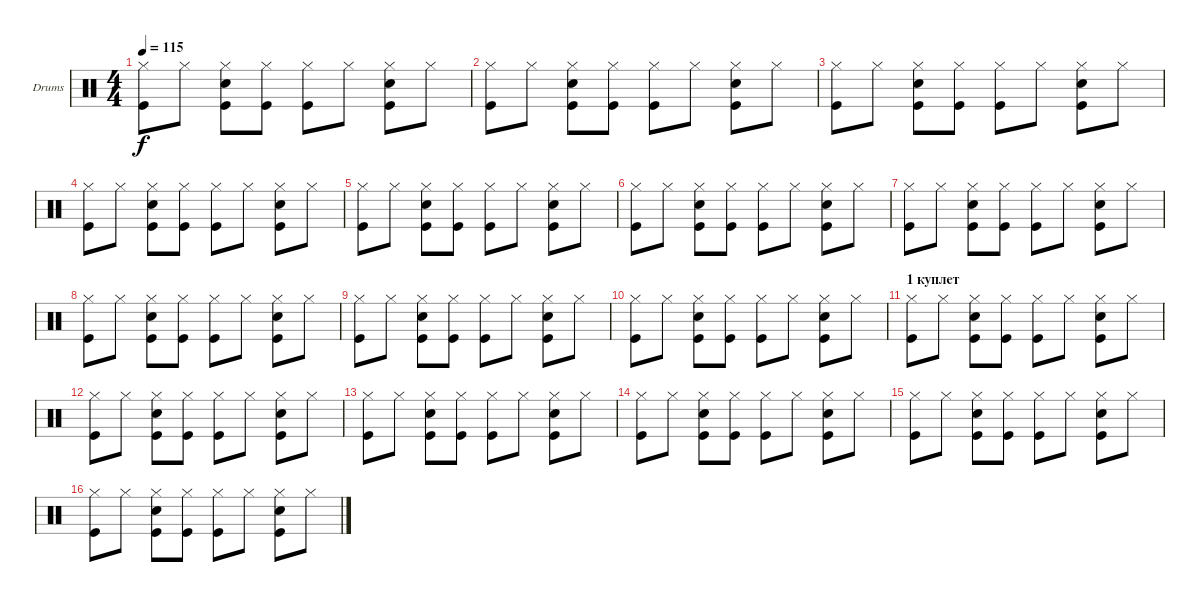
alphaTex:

\defaultSystemsLayout 4
\bracketExtendMode groupsimilarinstruments
\firstSystemTrackNameOrientation horizontal
\otherSystemsTrackNameOrientation horizontal
\track ("Drumkit" "Drums") {instrument percussion}
\staff {score}
\articulation defaults
\ts (4 4)
\tempo 115
\clef neutral
\ks c
("Hi-Hat (closed)" "Kick (hit)").8{dy f} "Hi-Hat (closed)".8 ("Hi-Hat (closed)" "Snare (hit) 2" "Kick (hit)").8 ("Hi-Hat (closed)" "Kick (hit)").8 ("Hi-Hat (closed)" "Kick (hit)").8 "Hi-Hat (closed)".8 ("Hi-Hat (closed)" "Kick (hit)" "Snare (hit) 2").8 "Hi-Hat (closed)".8 |
("Hi-Hat (closed)" "Kick (hit)").8 "Hi-Hat (closed)".8 ("Hi-Hat (closed)" "Snare (hit) 2" "Kick (hit)").8 ("Hi-Hat (closed)" "Kick (hit)").8 ("Hi-Hat (closed)" "Kick (hit)").8 "Hi-Hat (closed)".8 ("Hi-Hat (closed)" "Kick (hit)" "Snare (hit) 2").8 "Hi-Hat (closed)".8 |
("Hi-Hat (closed)" "Kick (hit)").8 "Hi-Hat (closed)".8 ("Hi-Hat (closed)" "Snare (hit) 2" "Kick (hit)").8 ("Hi-Hat (closed)" "Kick (hit)").8 ("Hi-Hat (closed)" "Kick (hit)").8 "Hi-Hat (closed)".8 ("Hi-Hat (closed)" "Kick (hit)" "Snare (hit) 2").8 "Hi-Hat (closed)".8 |
("Hi-Hat (closed)" "Kick (hit)").8 "Hi-Hat (closed)".8 ("Hi-Hat (closed)" "Snare (hit) 2" "Kick (hit)").8 ("Hi-Hat (closed)" "Kick (hit)").8 ("Hi-Hat (closed)" "Kick (hit)").8 "Hi-Hat (closed)".8 ("Hi-Hat (closed)" "Kick (hit)" "Snare (hit) 2").8 "Hi-Hat (closed)".8 |
("Hi-Hat (closed)" "Kick (hit)").8 "Hi-Hat (closed)".8 ("Hi-Hat (closed)" "Snare (hit) 2" "Kick (hit)").8 ("Hi-Hat (closed)" "Kick (hit)").8 ("Hi-Hat (closed)" "Kick (hit)").8 "Hi-Hat (closed)".8 ("Hi-Hat (closed)" "Kick (hit)" "Snare (hit) 2").8 "Hi-Hat (closed)".8 |
("Hi-Hat (closed)" "Kick (hit)").8 "Hi-Hat (closed)".8 ("Hi-Hat (closed)" "Snare (hit) 2" "Kick (hit)").8 ("Hi-Hat (closed)" "Kick (hit)").8 ("Hi-Hat (closed)" "Kick (hit)").8 "Hi-Hat (closed)".8 ("Hi-Hat (closed)" "Kick (hit)" "Snare (hit) 2").8 "Hi-Hat (closed)".8 |
("Hi-Hat (closed)" "Kick (hit)").8 "Hi-Hat (closed)".8 ("Hi-Hat (closed)" "Snare (hit) 2" "Kick (hit)").8 ("Hi-Hat (closed)" "Kick (hit)").8 ("Hi-Hat (closed)" "Kick (hit)").8 "Hi-Hat (closed)".8 ("Hi-Hat (closed)" "Kick (hit)" "Snare (hit) 2").8 "Hi-Hat (closed)".8 |
("Hi-Hat (closed)" "Kick (hit)").8 "Hi-Hat (closed)".8 ("Hi-Hat (closed)" "Snare (hit) 2" "Kick (hit)").8 ("Hi-Hat (closed)" "Kick (hit)").8 ("Hi-Hat (closed)" "Kick (hit)").8 "Hi-Hat (closed)".8 ("Hi-Hat (closed)" "Kick (hit)" "Snare (hit) 2").8 "Hi-Hat (closed)".8 |
("Hi-Hat (closed)" "Kick (hit)").8 "Hi-Hat (closed)".8 ("Hi-Hat (closed)" "Snare (hit) 2" "Kick (hit)").8 ("Hi-Hat (closed)" "Kick (hit)").8 ("Hi-Hat (closed)" "Kick (hit)").8 "Hi-Hat (closed)".8 ("Hi-Hat (closed)" "Kick (hit)" "Snare (hit) 2").8 "Hi-Hat (closed)".8 |
("Hi-Hat (closed)" "Kick (hit)").8 "Hi-Hat (closed)".8 ("Hi-Hat (closed)" "Snare (hit) 2" "Kick (hit)").8 ("Hi-Hat (closed)" "Kick (hit)").8 ("Hi-Hat (closed)" "Kick (hit)").8 "Hi-Hat (closed)".8 ("Hi-Hat (closed)" "Kick (hit)" "Snare (hit) 2").8 "Hi-Hat (closed)".8 |
\section ("" "1 куплет")
("Hi-Hat (closed)" "Kick (hit)").8 "Hi-Hat (closed)".8 ("Hi-Hat (closed)" "Snare (hit) 2" "Kick (hit)").8 ("Hi-Hat (closed)" "Kick (hit)").8 ("Hi-Hat (closed)" "Kick (hit)").8 "Hi-Hat (closed)".8 ("Hi-Hat (closed)" "Kick (hit)" "Snare (hit) 2").8 "Hi-Hat (closed)".8 |
("Hi-Hat (closed)" "Kick (hit)").8 "Hi-Hat (closed)".8 ("Hi-Hat (closed)" "Snare (hit) 2" "Kick (hit)").8 ("Hi-Hat (closed)" "Kick (hit)").8 ("Hi-Hat (closed)" "Kick (hit)").8 "Hi-Hat (closed)".8 ("Hi-Hat (closed)" "Kick (hit)" "Snare (hit) 2").8 "Hi-Hat (closed)".8 |
("Hi-Hat (closed)" "Kick (hit)").8 "Hi-Hat (closed)".8 ("Hi-Hat (closed)" "Snare (hit) 2" "Kick (hit)").8 ("Hi-Hat (closed)" "Kick (hit)").8 ("Hi-Hat (closed)" "Kick (hit)").8 "Hi-Hat (closed)".8 ("Hi-Hat (closed)" "Kick (hit)" "Snare (hit) 2").8 "Hi-Hat (closed)".8 |
("Hi-Hat (closed)" "Kick (hit)").8 "Hi-Hat (closed)".8 ("Hi-Hat (closed)" "Snare (hit) 2" "Kick (hit)").8 ("Hi-Hat (closed)" "Kick (hit)").8 ("Hi-Hat (closed)" "Kick (hit)").8 "Hi-Hat (closed)".8 ("Hi-Hat (closed)" "Kick (hit)" "Snare (hit) 2").8 "Hi-Hat (closed)".8 |
("Hi-Hat (closed)" "Kick (hit)").8 "Hi-Hat (closed)".8 ("Hi-Hat (closed)" "Snare (hit) 2" "Kick (hit)").8 ("Hi-Hat (closed)" "Kick (hit)").8 ("Hi-Hat (closed)" "Kick (hit)").8 "Hi-Hat (closed)".8 ("Hi-Hat (closed)" "Kick (hit)" "Snare (hit) 2").8 "Hi-Hat (closed)".8 |
("Hi-Hat (closed)" "Kick (hit)").8 "Hi-Hat (closed)".8 ("Hi-Hat (closed)" "Snare (hit) 2" "Kick (hit)").8 ("Hi-Hat (closed)" "Kick (hit)").8 ("Hi-Hat (closed)" "Kick (hit)").8 "Hi-Hat (closed)".8 ("Hi-Hat (closed)" "Kick (hit)" "Snare (hit) 2").8 "Hi-Hat (closed)".8
